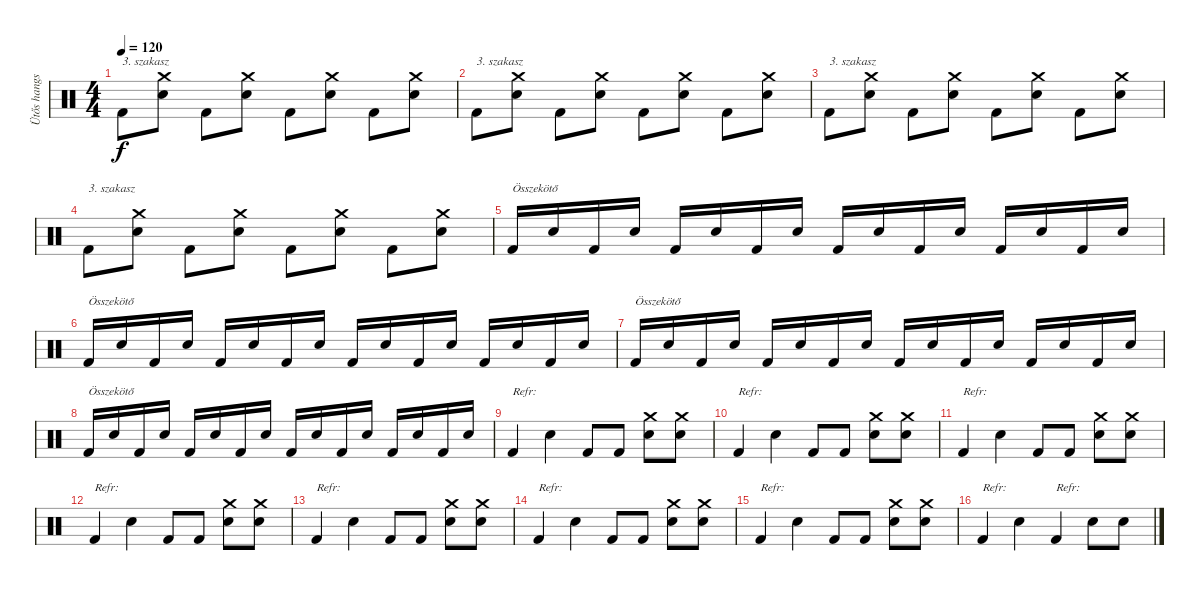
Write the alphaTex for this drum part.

\track ("Ütős hangszer" "Ütős hangs") {instrument percussion}
\staff {score}
\articulation defaults
\ts (4 4)
\tempo 120
\clef neutral
\ks c "Kick (hit) 2".8{txt "3. szakasz" dy f}
("Crash medium (hit)" "Snare (hit) 2").8 "Kick (hit) 2".8 ("Crash medium (hit)" "Snare (hit) 2").8 "Kick (hit) 2".8 ("Crash medium (hit)" "Snare (hit) 2").8 "Kick (hit) 2".8 ("Crash medium (hit)" "Snare (hit) 2").8 |
"Kick (hit) 2".8{txt "3. szakasz"} ("Crash medium (hit)" "Snare (hit) 2").8 "Kick (hit) 2".8 ("Crash medium (hit)" "Snare (hit) 2").8 "Kick (hit) 2".8 ("Crash medium (hit)" "Snare (hit) 2").8 "Kick (hit) 2".8 ("Crash medium (hit)" "Snare (hit) 2").8 |
"Kick (hit) 2".8{txt "3. szakasz"} ("Crash medium (hit)" "Snare (hit) 2").8 "Kick (hit) 2".8 ("Crash medium (hit)" "Snare (hit) 2").8 "Kick (hit) 2".8 ("Crash medium (hit)" "Snare (hit) 2").8 "Kick (hit) 2".8 ("Crash medium (hit)" "Snare (hit) 2").8 |
"Kick (hit) 2".8{txt "3. szakasz"} ("Crash medium (hit)" "Snare (hit) 2").8 "Kick (hit) 2".8 ("Crash medium (hit)" "Snare (hit) 2").8 "Kick (hit) 2".8 ("Crash medium (hit)" "Snare (hit) 2").8 "Kick (hit) 2".8 ("Crash medium (hit)" "Snare (hit) 2").8 |
"Kick (hit) 2".16{txt "Összekötő"} "Snare (hit) 2".16 "Kick (hit) 2".16 "Snare (hit) 2".16 "Kick (hit) 2".16 "Snare (hit) 2".16 "Kick (hit) 2".16 "Snare (hit) 2".16 "Kick (hit) 2".16 "Snare (hit) 2".16 "Kick (hit) 2".16 "Snare (hit) 2".16 "Kick (hit) 2".16 "Snare (hit) 2".16 "Kick (hit) 2".16 "Snare (hit) 2".16 |
"Kick (hit) 2".16{txt "Összekötő"} "Snare (hit) 2".16 "Kick (hit) 2".16 "Snare (hit) 2".16 "Kick (hit) 2".16 "Snare (hit) 2".16 "Kick (hit) 2".16 "Snare (hit) 2".16 "Kick (hit) 2".16 "Snare (hit) 2".16 "Kick (hit) 2".16 "Snare (hit) 2".16 "Kick (hit) 2".16 "Snare (hit) 2".16 "Kick (hit) 2".16 "Snare (hit) 2".16 |
"Kick (hit) 2".16{txt "Összekötő"} "Snare (hit) 2".16 "Kick (hit) 2".16 "Snare (hit) 2".16 "Kick (hit) 2".16 "Snare (hit) 2".16 "Kick (hit) 2".16 "Snare (hit) 2".16 "Kick (hit) 2".16 "Snare (hit) 2".16 "Kick (hit) 2".16 "Snare (hit) 2".16 "Kick (hit) 2".16 "Snare (hit) 2".16 "Kick (hit) 2".16 "Snare (hit) 2".16 |
"Kick (hit) 2".16{txt "Összekötő"} "Snare (hit) 2".16 "Kick (hit) 2".16 "Snare (hit) 2".16 "Kick (hit) 2".16 "Snare (hit) 2".16 "Kick (hit) 2".16 "Snare (hit) 2".16 "Kick (hit) 2".16 "Snare (hit) 2".16 "Kick (hit) 2".16 "Snare (hit) 2".16 "Kick (hit) 2".16 "Snare (hit) 2".16 "Kick (hit) 2".16 "Snare (hit) 2".16 |
"Kick (hit) 2".4{txt "Refr:"} "Snare (hit) 2".4 "Kick (hit) 2".8 "Kick (hit) 2".8 ("Crash medium (hit)" "Snare (hit) 2").8 ("Crash medium (hit)" "Snare (hit) 2").8 |
"Kick (hit) 2".4{txt "Refr:"} "Snare (hit) 2".4 "Kick (hit) 2".8 "Kick (hit) 2".8 ("Crash medium (hit)" "Snare (hit) 2").8 ("Crash medium (hit)" "Snare (hit) 2").8 |
"Kick (hit) 2".4{txt "Refr:"} "Snare (hit) 2".4 "Kick (hit) 2".8 "Kick (hit) 2".8 ("Crash medium (hit)" "Snare (hit) 2").8 ("Crash medium (hit)" "Snare (hit) 2").8 |
"Kick (hit) 2".4{txt "Refr:"} "Snare (hit) 2".4 "Kick (hit) 2".8 "Kick (hit) 2".8 ("Crash medium (hit)" "Snare (hit) 2").8 ("Crash medium (hit)" "Snare (hit) 2").8 |
"Kick (hit) 2".4{txt "Refr:"} "Snare (hit) 2".4 "Kick (hit) 2".8 "Kick (hit) 2".8 ("Crash medium (hit)" "Snare (hit) 2").8 ("Crash medium (hit)" "Snare (hit) 2").8 |
"Kick (hit) 2".4{txt "Refr:"} "Snare (hit) 2".4 "Kick (hit) 2".8 "Kick (hit) 2".8 ("Crash medium (hit)" "Snare (hit) 2").8 ("Crash medium (hit)" "Snare (hit) 2").8 |
"Kick (hit) 2".4{txt "Refr:"} "Snare (hit) 2".4 "Kick (hit) 2".8 "Kick (hit) 2".8 ("Crash medium (hit)" "Snare (hit) 2").8 ("Crash medium (hit)" "Snare (hit) 2").8 |
"Kick (hit) 2".4{txt "Refr:"} "Snare (hit) 2".4 "Kick (hit) 2".4{txt "Refr:"} "Snare (hit) 2".8 "Snare (hit) 2".8
